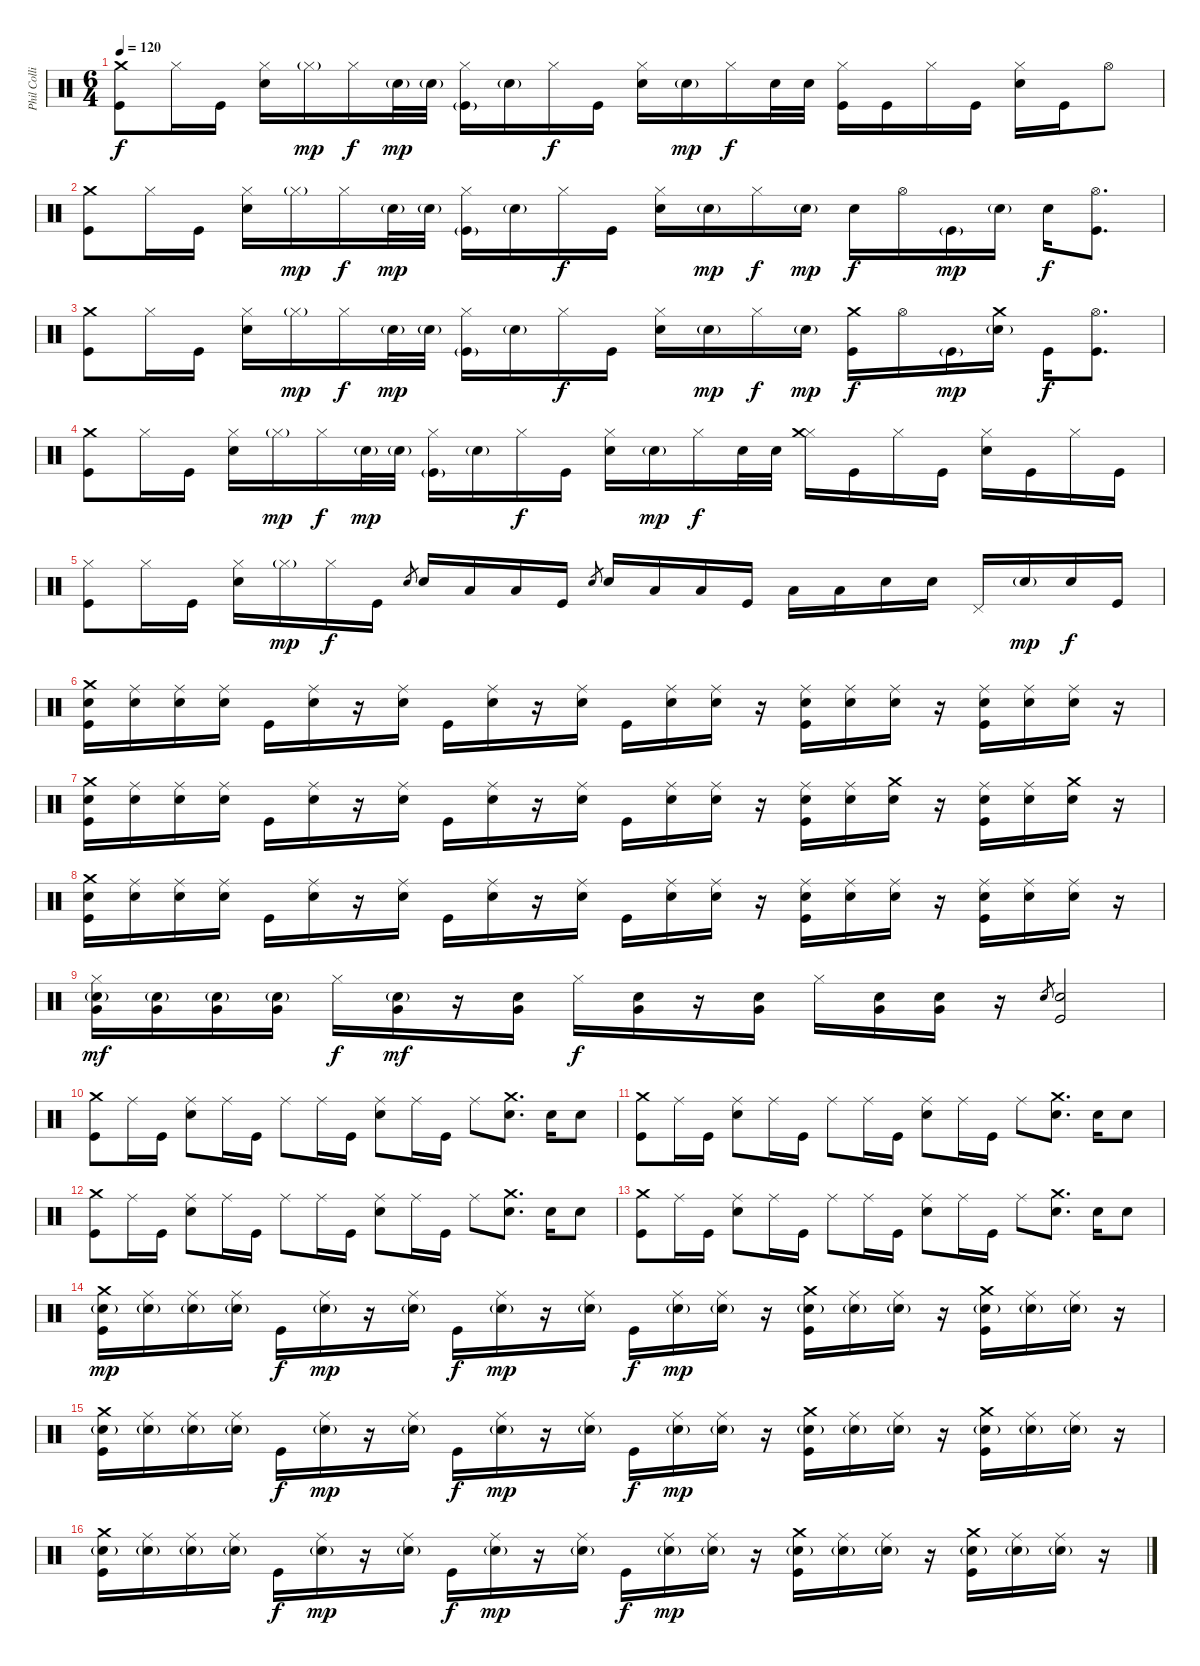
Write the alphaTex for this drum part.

\track ("Phil Collins" "Phil Colli") {instrument percussion}
\staff
\articulation defaults
\ts (6 4)
\tempo 120
\clef neutral
\ks c
("Crash medium (hit)" "Kick (hit)").8{dy f} "Hi-Hat (closed)".16 "Kick (hit)".16 ("Hi-Hat (closed)" "Electric Snare (hit)").16 "Hi-Hat (closed)"{g}.16{dy mp} "Hi-Hat (closed)".16{dy f} "Electric Snare (hit)"{g}.32{dy mp} "Electric Snare (hit)"{g}.32 ("Hi-Hat (closed)" "Kick (hit)"{g}).16 "Electric Snare (hit)"{g}.16 "Hi-Hat (closed)".16{dy f} "Kick (hit)".16 ("Hi-Hat (closed)" "Electric Snare (hit)").16 "Electric Snare (hit)"{g}.16{dy mp} "Hi-Hat (closed)".16{dy f} "Electric Snare (hit)".32 "Electric Snare (hit)".32 ("Hi-Hat (closed)" "Kick (hit)").16 "Kick (hit)".16 "Hi-Hat (closed)".16 "Kick (hit)".16 ("Hi-Hat (closed)" "Electric Snare (hit)").16 "Kick (hit)".16 "Hi-Hat (open)".8 |
("Crash medium (hit)" "Kick (hit)").8 "Hi-Hat (closed)".16 "Kick (hit)".16 ("Hi-Hat (closed)" "Electric Snare (hit)").16 "Hi-Hat (closed)"{g}.16{dy mp} "Hi-Hat (closed)".16{dy f} "Electric Snare (hit)"{g}.32{dy mp} "Electric Snare (hit)"{g}.32 ("Hi-Hat (closed)" "Kick (hit)"{g}).16 "Electric Snare (hit)"{g}.16 "Hi-Hat (closed)".16{dy f} "Kick (hit)".16 ("Hi-Hat (closed)" "Electric Snare (hit)").16 "Electric Snare (hit)"{g}.16{dy mp} "Hi-Hat (closed)".16{dy f} "Electric Snare (hit)"{g}.16{dy mp} "Electric Snare (hit)".16{dy f} "Hi-Hat (open)".16 "Kick (hit)"{g}.16{dy mp} "Electric Snare (hit)"{g}.16 "Electric Snare (hit)".16{dy f} ("Hi-Hat (open)" "Kick (hit)").8{d} |
("Crash medium (hit)" "Kick (hit)").8 "Hi-Hat (closed)".16 "Kick (hit)".16 ("Hi-Hat (closed)" "Electric Snare (hit)").16 "Hi-Hat (closed)"{g}.16{dy mp} "Hi-Hat (closed)".16{dy f} "Electric Snare (hit)"{g}.32{dy mp} "Electric Snare (hit)"{g}.32 ("Hi-Hat (closed)" "Kick (hit)"{g}).16 "Electric Snare (hit)"{g}.16 "Hi-Hat (closed)".16{dy f} "Kick (hit)".16 ("Hi-Hat (closed)" "Electric Snare (hit)").16 "Electric Snare (hit)"{g}.16{dy mp} "Hi-Hat (closed)".16{dy f} "Electric Snare (hit)"{g}.16{dy mp} ("Crash medium (hit)" "Kick (hit)").16{dy f} "Hi-Hat (open)".16 "Kick (hit)"{g}.16{dy mp} ("Electric Snare (hit)"{g} "Crash medium (hit)").16 "Kick (hit)".16{dy f} ("Hi-Hat (open)" "Kick (hit)").8{d} |
("Crash medium (hit)" "Kick (hit)").8 "Hi-Hat (closed)".16 "Kick (hit)".16 ("Hi-Hat (closed)" "Electric Snare (hit)").16 "Hi-Hat (closed)"{g}.16{dy mp} "Hi-Hat (closed)".16{dy f} "Electric Snare (hit)"{g}.32{dy mp} "Electric Snare (hit)"{g}.32 ("Hi-Hat (closed)" "Kick (hit)"{g}).16 "Electric Snare (hit)"{g}.16 "Hi-Hat (closed)".16{dy f} "Kick (hit)".16 ("Hi-Hat (closed)" "Electric Snare (hit)").16 "Electric Snare (hit)"{g}.16{dy mp} "Hi-Hat (closed)".16{dy f} "Electric Snare (hit)".32 "Electric Snare (hit)".32 ("Hi-Hat (closed)" "Crash medium (hit)").16 "Kick (hit)".16 "Hi-Hat (closed)".16 "Kick (hit)".16 ("Hi-Hat (closed)" "Electric Snare (hit)").16 "Kick (hit)".16 "Hi-Hat (closed)".16 "Kick (hit)".16 |
("Hi-Hat (closed)" "Kick (hit)").8 "Hi-Hat (closed)".16 "Kick (hit)".16 ("Hi-Hat (closed)" "Electric Snare (hit)").16 "Hi-Hat (closed)"{g}.16{dy mp} "Hi-Hat (closed)".16{dy f} "Kick (hit)".16 "Electric Snare (hit)".8{gr} "Electric Snare (hit)".16 "Low Tom (hit)".16 "Low Floor Tom (hit)".16 "Kick (hit)".16 "Electric Snare (hit)".8{gr} "Electric Snare (hit)".16 "Low Tom (hit)".16 "Low Floor Tom (hit)".16 "Kick (hit)".16 "Low Tom (hit)".16 "Low Tom (hit)".16 "Electric Snare (hit)".16 "Electric Snare (hit)".16 "Pedal Hi-Hat (hit)".16 "Electric Snare (hit)"{g}.16{dy mp} "Electric Snare (hit)".16{dy f} "Kick (hit)".16 |
("Electric Snare (hit)" "Crash medium (hit)" "Kick (hit)").16 ("Electric Snare (hit)" "Ride (middle)").16 ("Electric Snare (hit)" "Ride (middle)").16 ("Electric Snare (hit)" "Ride (middle)").16 "Kick (hit)".16 ("Electric Snare (hit)" "Ride (middle)").16 r.16 ("Electric Snare (hit)" "Ride (middle)").16 "Kick (hit)".16 ("Electric Snare (hit)" "Ride (middle)").16 r.16 ("Electric Snare (hit)" "Ride (middle)").16 "Kick (hit)".16 ("Electric Snare (hit)" "Ride (middle)").16 ("Electric Snare (hit)" "Ride (middle)").16 r.16 ("Electric Snare (hit)" "Ride (middle)" "Kick (hit)").16 ("Electric Snare (hit)" "Ride (middle)").16 ("Electric Snare (hit)" "Ride (middle)").16 r.16 ("Electric Snare (hit)" "Ride (middle)" "Kick (hit)").16 ("Electric Snare (hit)" "Ride (middle)").16 ("Electric Snare (hit)" "Ride (middle)").16 r.16 |
("Electric Snare (hit)" "Crash medium (hit)" "Kick (hit)").16 ("Electric Snare (hit)" "Ride (middle)").16 ("Electric Snare (hit)" "Ride (middle)").16 ("Electric Snare (hit)" "Ride (middle)").16 "Kick (hit)".16 ("Electric Snare (hit)" "Ride (middle)").16 r.16 ("Electric Snare (hit)" "Ride (middle)").16 "Kick (hit)".16 ("Electric Snare (hit)" "Ride (middle)").16 r.16 ("Electric Snare (hit)" "Ride (middle)").16 "Kick (hit)".16 ("Electric Snare (hit)" "Ride (middle)").16 ("Electric Snare (hit)" "Ride (middle)").16 r.16 ("Electric Snare (hit)" "Ride (middle)" "Kick (hit)").16 ("Electric Snare (hit)" "Ride (middle)").16 ("Electric Snare (hit)" "Crash medium (hit)").16 r.16 ("Electric Snare (hit)" "Ride (middle)" "Kick (hit)").16 ("Electric Snare (hit)" "Ride (middle)").16 ("Electric Snare (hit)" "Crash medium (hit)").16 r.16 |
("Electric Snare (hit)" "Crash medium (hit)" "Kick (hit)").16 ("Electric Snare (hit)" "Ride (middle)").16 ("Electric Snare (hit)" "Ride (middle)").16 ("Electric Snare (hit)" "Ride (middle)").16 "Kick (hit)".16 ("Electric Snare (hit)" "Ride (middle)").16 r.16 ("Electric Snare (hit)" "Ride (middle)").16 "Kick (hit)".16 ("Electric Snare (hit)" "Ride (middle)").16 r.16 ("Electric Snare (hit)" "Ride (middle)").16 "Kick (hit)".16 ("Electric Snare (hit)" "Ride (middle)").16 ("Electric Snare (hit)" "Ride (middle)").16 r.16 ("Electric Snare (hit)" "Ride (middle)" "Kick (hit)").16 ("Electric Snare (hit)" "Ride (middle)").16 ("Electric Snare (hit)" "Ride (middle)").16 r.16 ("Electric Snare (hit)" "Ride (middle)" "Kick (hit)").16 ("Electric Snare (hit)" "Ride (middle)").16 ("Electric Snare (hit)" "Ride (middle)").16 r.16 |
("Electric Snare (hit)"{g} "Very Low Tom (hit)" "Hi-Hat (closed)").16{dy mf} ("Electric Snare (hit)"{g} "Very Low Tom (hit)").16 ("Electric Snare (hit)"{g} "Very Low Tom (hit)").16 ("Electric Snare (hit)"{g} "Very Low Tom (hit)").16 "Hi-Hat (closed)".16{dy f} ("Electric Snare (hit)"{g} "Very Low Tom (hit)").16{dy mf} r.16 ("Electric Snare (hit)" "Very Low Tom (hit)").16 "Hi-Hat (closed)".16{dy f} ("Electric Snare (hit)" "Very Low Tom (hit)").16 r.16 ("Electric Snare (hit)" "Very Low Tom (hit)").16 "Hi-Hat (closed)".16 ("Electric Snare (hit)" "Very Low Tom (hit)").16 ("Electric Snare (hit)" "Very Low Tom (hit)").16 r.16 "Electric Snare (hit)".8{gr} ("Electric Snare (hit)" "Kick (hit)").2 |
("Crash medium (hit)" "Kick (hit)").8 "Ride (middle)".16 "Kick (hit)".16 ("Ride (middle)" "Electric Snare (hit)").8 "Ride (middle)".16 "Kick (hit)".16 "Ride (middle)".8 "Ride (middle)".16 "Kick (hit)".16 ("Ride (middle)" "Electric Snare (hit)").8 "Ride (middle)".16 "Kick (hit)".16 "Ride (middle)".8 ("Crash medium (hit)" "Electric Snare (hit)").8{d} "Electric Snare (hit)".16 "Electric Snare (hit)".8 |
("Crash medium (hit)" "Kick (hit)").8 "Ride (middle)".16 "Kick (hit)".16 ("Ride (middle)" "Electric Snare (hit)").8 "Ride (middle)".16 "Kick (hit)".16 "Ride (middle)".8 "Ride (middle)".16 "Kick (hit)".16 ("Ride (middle)" "Electric Snare (hit)").8 "Ride (middle)".16 "Kick (hit)".16 "Ride (middle)".8 ("Crash medium (hit)" "Electric Snare (hit)").8{d} "Electric Snare (hit)".16 "Electric Snare (hit)".8 |
("Crash medium (hit)" "Kick (hit)").8 "Ride (middle)".16 "Kick (hit)".16 ("Ride (middle)" "Electric Snare (hit)").8 "Ride (middle)".16 "Kick (hit)".16 "Ride (middle)".8 "Ride (middle)".16 "Kick (hit)".16 ("Ride (middle)" "Electric Snare (hit)").8 "Ride (middle)".16 "Kick (hit)".16 "Ride (middle)".8 ("Crash medium (hit)" "Electric Snare (hit)").8{d} "Electric Snare (hit)".16 "Electric Snare (hit)".8 |
("Crash medium (hit)" "Kick (hit)").8 "Ride (middle)".16 "Kick (hit)".16 ("Ride (middle)" "Electric Snare (hit)").8 "Ride (middle)".16 "Kick (hit)".16 "Ride (middle)".8 "Ride (middle)".16 "Kick (hit)".16 ("Ride (middle)" "Electric Snare (hit)").8 "Ride (middle)".16 "Kick (hit)".16 "Ride (middle)".8 ("Crash medium (hit)" "Electric Snare (hit)").8{d} "Electric Snare (hit)".16 "Electric Snare (hit)".8 |
("Electric Snare (hit)"{g} "Crash medium (hit)" "Kick (hit)").16{dy mp} ("Electric Snare (hit)"{g} "Ride (middle)").16 ("Electric Snare (hit)"{g} "Ride (middle)").16 ("Electric Snare (hit)"{g} "Ride (middle)").16 "Kick (hit)".16{dy f} ("Electric Snare (hit)"{g} "Ride (middle)").16{dy mp} r.16 ("Electric Snare (hit)"{g} "Ride (middle)").16 "Kick (hit)".16{dy f} ("Electric Snare (hit)"{g} "Ride (middle)").16{dy mp} r.16 ("Electric Snare (hit)"{g} "Ride (middle)").16 "Kick (hit)".16{dy f} ("Electric Snare (hit)"{g} "Ride (middle)").16{dy mp} ("Electric Snare (hit)"{g} "Ride (middle)").16 r.16 ("Electric Snare (hit)"{g} "Crash medium (hit)" "Kick (hit)").16 ("Electric Snare (hit)"{g} "Ride (middle)").16 ("Electric Snare (hit)"{g} "Ride (middle)").16 r.16 ("Electric Snare (hit)"{g} "Crash medium (hit)" "Kick (hit)").16 ("Electric Snare (hit)"{g} "Ride (middle)").16 ("Electric Snare (hit)"{g} "Ride (middle)").16 r.16 |
("Electric Snare (hit)"{g} "Crash medium (hit)" "Kick (hit)").16 ("Electric Snare (hit)"{g} "Ride (middle)").16 ("Electric Snare (hit)"{g} "Ride (middle)").16 ("Electric Snare (hit)"{g} "Ride (middle)").16 "Kick (hit)".16{dy f} ("Electric Snare (hit)"{g} "Ride (middle)").16{dy mp} r.16 ("Electric Snare (hit)"{g} "Ride (middle)").16 "Kick (hit)".16{dy f} ("Electric Snare (hit)"{g} "Ride (middle)").16{dy mp} r.16 ("Electric Snare (hit)"{g} "Ride (middle)").16 "Kick (hit)".16{dy f} ("Electric Snare (hit)"{g} "Ride (middle)").16{dy mp} ("Electric Snare (hit)"{g} "Ride (middle)").16 r.16 ("Electric Snare (hit)"{g} "Crash medium (hit)" "Kick (hit)").16 ("Electric Snare (hit)"{g} "Ride (middle)").16 ("Electric Snare (hit)"{g} "Ride (middle)").16 r.16 ("Electric Snare (hit)"{g} "Crash medium (hit)" "Kick (hit)").16 ("Electric Snare (hit)"{g} "Ride (middle)").16 ("Electric Snare (hit)"{g} "Ride (middle)").16 r.16 |
("Electric Snare (hit)"{g} "Crash medium (hit)" "Kick (hit)").16 ("Electric Snare (hit)"{g} "Ride (middle)").16 ("Electric Snare (hit)"{g} "Ride (middle)").16 ("Electric Snare (hit)"{g} "Ride (middle)").16 "Kick (hit)".16{dy f} ("Electric Snare (hit)"{g} "Ride (middle)").16{dy mp} r.16 ("Electric Snare (hit)"{g} "Ride (middle)").16 "Kick (hit)".16{dy f} ("Electric Snare (hit)"{g} "Ride (middle)").16{dy mp} r.16 ("Electric Snare (hit)"{g} "Ride (middle)").16 "Kick (hit)".16{dy f} ("Electric Snare (hit)"{g} "Ride (middle)").16{dy mp} ("Electric Snare (hit)"{g} "Ride (middle)").16 r.16 ("Electric Snare (hit)"{g} "Crash medium (hit)" "Kick (hit)").16 ("Electric Snare (hit)"{g} "Ride (middle)").16 ("Electric Snare (hit)"{g} "Ride (middle)").16 r.16 ("Electric Snare (hit)"{g} "Crash medium (hit)" "Kick (hit)").16 ("Electric Snare (hit)"{g} "Ride (middle)").16 ("Electric Snare (hit)"{g} "Ride (middle)").16 r.16
